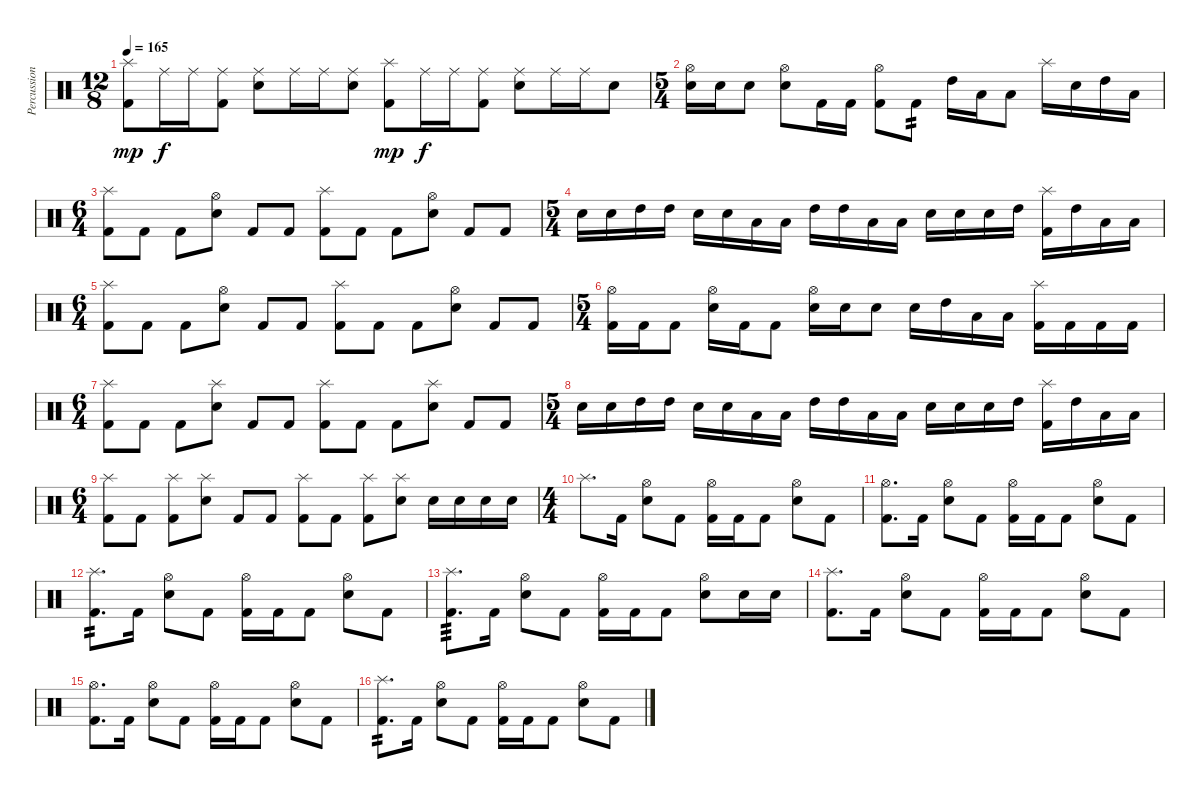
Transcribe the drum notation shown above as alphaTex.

\track ("Percussion" "Percussion") {instrument percussion}
\staff {score}
\articulation defaults
\ts (12 8)
\tempo 165
\clef neutral
\ks c
("Splash (hit)" "Kick (hit) 2").8{dy mp} "Ride (middle)".16{dy f} "Ride (middle)".16 ("Ride (middle)" "Kick (hit) 2").8 ("Ride (middle)" "Electric Snare (hit)").8 "Ride (middle)".16 "Ride (middle)".16 ("Ride (middle)" "Electric Snare (hit)").8 ("Splash (hit)" "Kick (hit) 2").8{dy mp} "Ride (middle)".16{dy f} "Ride (middle)".16 ("Ride (middle)" "Kick (hit) 2").8 ("Ride (middle)" "Electric Snare (hit)").8 "Ride (middle)".16 "Ride (middle)".16 "Electric Snare (hit)".8 |
\ts (5 4)
("Hi-Hat (open)" "Electric Snare (hit)").16 "Electric Snare (hit)".16 "Electric Snare (hit)".8 ("Hi-Hat (open)" "Electric Snare (hit)").8 "Kick (hit) 2".16 "Kick (hit) 2".16 ("Hi-Hat (open)" "Kick (hit) 2").8 "Kick (hit) 2".8{tp 2} "High Tom (hit)".16 "Low Tom (hit)".16 "Low Floor Tom (hit)".8 "Splash (hit)".16 "Electric Snare (hit)".16 "High Tom (hit)".16 "Low Tom (hit)".16 |
\ts (6 4)
("Splash (hit)" "Kick (hit) 2").8 "Kick (hit) 2".8 "Kick (hit) 2".8 ("Hi-Hat (open)" "Electric Snare (hit)").8 "Kick (hit) 2".8 "Kick (hit) 2".8 ("Splash (hit)" "Kick (hit) 2").8 "Kick (hit) 2".8 "Kick (hit) 2".8 ("Hi-Hat (open)" "Electric Snare (hit)").8 "Kick (hit) 2".8 "Kick (hit) 2".8 |
\ts (5 4)
"Electric Snare (hit)".16 "Electric Snare (hit)".16 "High Tom (hit)".16 "High Tom (hit)".16 "Electric Snare (hit)".16 "Electric Snare (hit)".16 "Low Tom (hit)".16 "Low Tom (hit)".16 "High Tom (hit)".16 "High Tom (hit)".16 "Low Tom (hit)".16 "Low Floor Tom (hit)".16 "Electric Snare (hit)".16 "Electric Snare (hit)".16 "Electric Snare (hit)".16 "High Tom (hit)".16 ("Splash (hit)" "Kick (hit) 2").16 "High Tom (hit)".16 "Low Tom (hit)".16 "Low Floor Tom (hit)".16 |
\ts (6 4)
("Splash (hit)" "Kick (hit) 2").8 "Kick (hit) 2".8 "Kick (hit) 2".8 ("Hi-Hat (open)" "Electric Snare (hit)").8 "Kick (hit) 2".8 "Kick (hit) 2".8 ("Splash (hit)" "Kick (hit) 2").8 "Kick (hit) 2".8 "Kick (hit) 2".8 ("Hi-Hat (open)" "Electric Snare (hit)").8 "Kick (hit) 2".8 "Kick (hit) 2".8 |
\ts (5 4)
("Hi-Hat (open)" "Kick (hit) 2").16 "Kick (hit) 2".16 "Kick (hit) 2".8 ("Hi-Hat (open)" "Electric Snare (hit)").16 "Kick (hit) 2".16 "Kick (hit) 2".8 ("Hi-Hat (open)" "Electric Snare (hit)").16 "Electric Snare (hit)".16 "Electric Snare (hit)".8 "Electric Snare (hit)".16 "High Tom (hit)".16 "Low Tom (hit)".16 "Low Floor Tom (hit)".16 ("Splash (hit)" "Kick (hit) 2").16 "Kick (hit) 2".16 "Kick (hit) 2".16 "Kick (hit) 2".16 |
\ts (6 4)
("Splash (hit)" "Kick (hit) 2").8 "Kick (hit) 2".8 "Kick (hit) 2".8 ("Splash (hit)" "Electric Snare (hit)").8 "Kick (hit) 2".8 "Kick (hit) 2".8 ("Splash (hit)" "Kick (hit) 2").8 "Kick (hit) 2".8 "Kick (hit) 2".8 ("Splash (hit)" "Electric Snare (hit)").8 "Kick (hit) 2".8 "Kick (hit) 2".8 |
\ts (5 4)
"Electric Snare (hit)".16 "Electric Snare (hit)".16 "High Tom (hit)".16 "High Tom (hit)".16 "Electric Snare (hit)".16 "Electric Snare (hit)".16 "Low Tom (hit)".16 "Low Tom (hit)".16 "High Tom (hit)".16 "High Tom (hit)".16 "Low Tom (hit)".16 "Low Floor Tom (hit)".16 "Electric Snare (hit)".16 "Electric Snare (hit)".16 "Electric Snare (hit)".16 "High Tom (hit)".16 ("Splash (hit)" "Kick (hit) 2").16 "High Tom (hit)".16 "Low Tom (hit)".16 "Low Floor Tom (hit)".16 |
\ts (6 4)
("Splash (hit)" "Kick (hit) 2").8 "Kick (hit) 2".8 ("Splash (hit)" "Kick (hit) 2").8 ("Splash (hit)" "Electric Snare (hit)").8 "Kick (hit) 2".8 "Kick (hit) 2".8 ("Splash (hit)" "Kick (hit) 2").8 "Kick (hit) 2".8 ("Splash (hit)" "Kick (hit) 2").8 ("Splash (hit)" "Electric Snare (hit)").8 "Electric Snare (hit)".16 "Electric Snare (hit)".16 "Electric Snare (hit)".16 "Electric Snare (hit)".16 |
\ts (4 4)
"Splash (hit)".8{d} "Kick (hit) 2".16 ("Hi-Hat (open)" "Electric Snare (hit)").8 "Kick (hit) 2".8 ("Hi-Hat (open)" "Kick (hit) 2").16 "Kick (hit) 2".16 "Kick (hit) 2".8 ("Hi-Hat (open)" "Electric Snare (hit)").8 "Kick (hit) 2".8 |
("Hi-Hat (open)" "Kick (hit) 2").8{d} "Kick (hit) 2".16 ("Hi-Hat (open)" "Electric Snare (hit)").8 "Kick (hit) 2".8 ("Hi-Hat (open)" "Kick (hit) 2").16 "Kick (hit) 2".16 "Kick (hit) 2".8 ("Hi-Hat (open)" "Electric Snare (hit)").8 "Kick (hit) 2".8 |
("Splash (hit)" "Kick (hit) 2").8{d tp 2} "Kick (hit) 2".16 ("Hi-Hat (open)" "Electric Snare (hit)").8 "Kick (hit) 2".8 ("Hi-Hat (open)" "Kick (hit) 2").16 "Kick (hit) 2".16 "Kick (hit) 2".8 ("Hi-Hat (open)" "Electric Snare (hit)").8 "Kick (hit) 2".8 |
("Splash (hit)" "Kick (hit) 2").8{d tp 3} "Kick (hit) 2".16 ("Hi-Hat (open)" "Electric Snare (hit)").8 "Kick (hit) 2".8 ("Hi-Hat (open)" "Kick (hit) 2").16 "Kick (hit) 2".16 "Kick (hit) 2".8 ("Hi-Hat (open)" "Electric Snare (hit)").8 "Electric Snare (hit)".16 "Electric Snare (hit)".16 |
("Splash (hit)" "Kick (hit) 2").8{d} "Kick (hit) 2".16 ("Hi-Hat (open)" "Electric Snare (hit)").8 "Kick (hit) 2".8 ("Hi-Hat (open)" "Kick (hit) 2").16 "Kick (hit) 2".16 "Kick (hit) 2".8 ("Hi-Hat (open)" "Electric Snare (hit)").8 "Kick (hit) 2".8 |
("Hi-Hat (open)" "Kick (hit) 2").8{d} "Kick (hit) 2".16 ("Hi-Hat (open)" "Electric Snare (hit)").8 "Kick (hit) 2".8 ("Hi-Hat (open)" "Kick (hit) 2").16 "Kick (hit) 2".16 "Kick (hit) 2".8 ("Hi-Hat (open)" "Electric Snare (hit)").8 "Kick (hit) 2".8 |
("Splash (hit)" "Kick (hit) 2").8{d tp 2} "Kick (hit) 2".16 ("Hi-Hat (open)" "Electric Snare (hit)").8 "Kick (hit) 2".8 ("Hi-Hat (open)" "Kick (hit) 2").16 "Kick (hit) 2".16 "Kick (hit) 2".8 ("Hi-Hat (open)" "Electric Snare (hit)").8 "Kick (hit) 2".8
